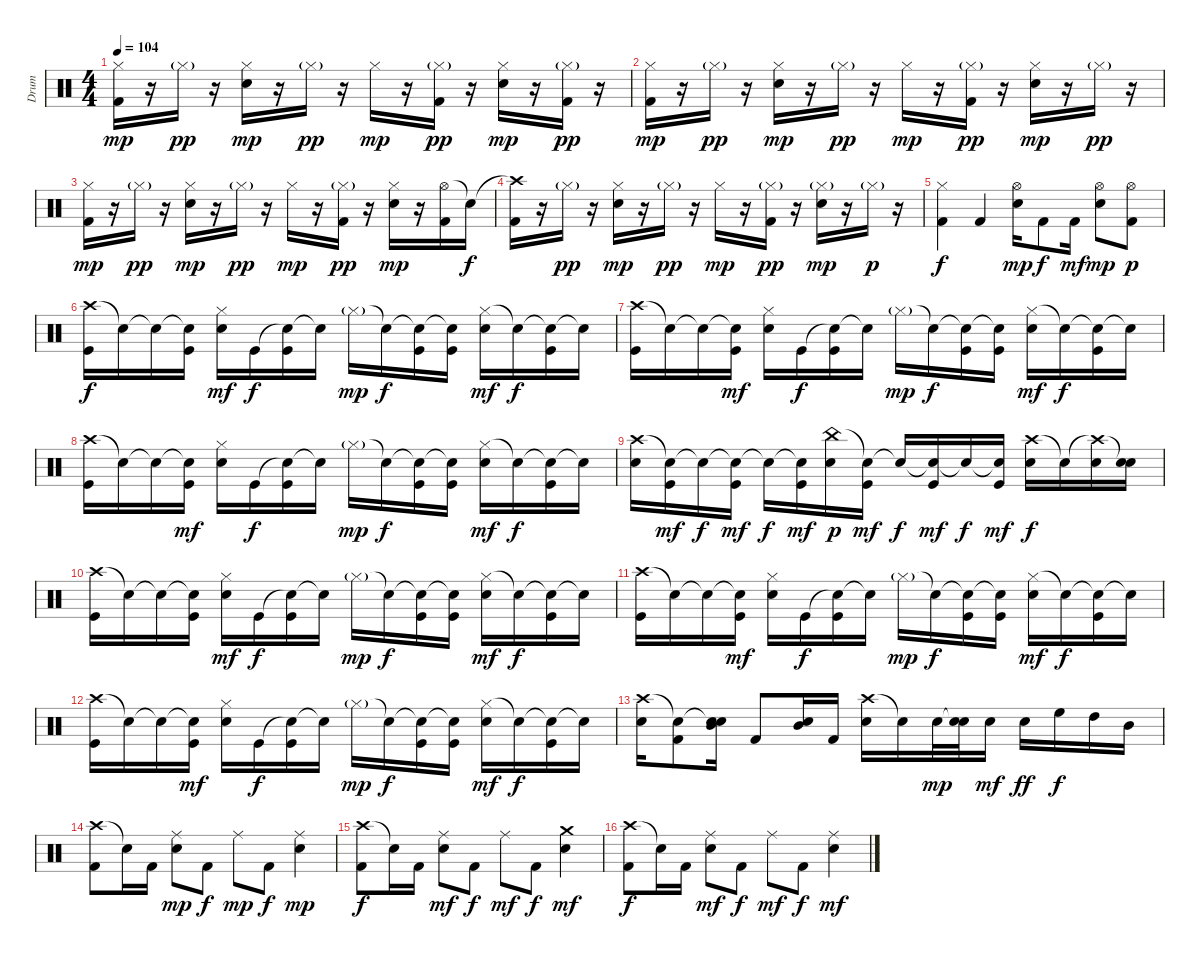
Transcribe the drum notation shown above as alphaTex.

\track ("Drum" "Drum") {instrument percussion}
\staff {score}
\articulation defaults
\ts (4 4)
\tempo 104
\clef neutral
\ks c
("Hi-Hat (closed)" "Kick (hit) 2").16{dy mp} r.16 "Hi-Hat (closed)"{g}.16{dy pp} r.16 ("Hi-Hat (closed)" "Snare (hit) 2").16{dy mp} r.16 "Hi-Hat (closed)"{g}.16{dy pp} r.16 "Hi-Hat (closed)".16{dy mp} r.16 ("Hi-Hat (closed)"{g} "Kick (hit) 2").16{dy pp} r.16 ("Hi-Hat (closed)" "Snare (hit) 2").16{dy mp} r.16 ("Hi-Hat (closed)"{g} "Kick (hit) 2").16{dy pp} r.16 |
("Hi-Hat (closed)" "Kick (hit) 2").16{dy mp} r.16 "Hi-Hat (closed)"{g}.16{dy pp} r.16 ("Hi-Hat (closed)" "Snare (hit) 2").16{dy mp} r.16 "Hi-Hat (closed)"{g}.16{dy pp} r.16 "Hi-Hat (closed)".16{dy mp} r.16 ("Hi-Hat (closed)"{g} "Kick (hit) 2").16{dy pp} r.16 ("Hi-Hat (closed)" "Snare (hit) 2").16{dy mp} r.16 "Hi-Hat (closed)"{g}.16{dy pp} r.16 |
("Hi-Hat (closed)" "Kick (hit) 2").16{dy mp} r.16 "Hi-Hat (closed)"{g}.16{dy pp} r.16 ("Hi-Hat (closed)" "Snare (hit) 2").16{dy mp} r.16 "Hi-Hat (closed)"{g}.16{dy pp} r.16 "Hi-Hat (closed)".16{dy mp} r.16 ("Hi-Hat (closed)"{g} "Kick (hit) 2").16{dy pp} r.16 ("Hi-Hat (closed)" "Snare (hit) 2").16{dy mp} r.16 ("Hi-Hat (open)" "Kick (hit) 2").16 "Snare (hit)"{t}.16{dy f} |
("Crash high (hit)"{t} "Kick (hit) 2").16 r.16 "Hi-Hat (closed)"{g}.16{dy pp} r.16 ("Hi-Hat (closed)" "Snare (hit) 2").16{dy mp} r.16 "Hi-Hat (closed)"{g}.16{dy pp} r.16 "Hi-Hat (closed)".16{dy mp} r.16 ("Hi-Hat (closed)"{g} "Kick (hit) 2").16{dy pp} r.16 ("Hi-Hat (closed)"{g} "Snare (hit) 2").16{dy mp} r.16 "Hi-Hat (closed)"{g}.16{dy p} r.16 |
("Hi-Hat (closed)" "Kick (hit) 2").4{dy f} "Kick (hit) 2".4 ("Hi-Hat (open)" "Snare (hit) 2").16{dy mp} "Kick (hit) 2".8{dy f} "Kick (hit) 2".16{dy mf} ("Hi-Hat (open)" "Snare (hit) 2").8{dy mp} ("Hi-Hat (open)" "Kick (hit) 2").8{dy p} |
("Crash high (hit)" "Kick (hit)").16{dy f} "Snare (hit)"{t}.16 "Snare (hit)"{t}.16 ("Snare (hit)"{t} "Kick (hit)").16 ("Hi-Hat (closed)" "Snare (hit) 2").16{dy mf} "Kick (hit)".16{dy f} ("Snare (hit)"{t} "Kick (hit)").16 "Snare (hit)"{t}.16 "Hi-Hat (closed)"{g}.16{dy mp} "Snare (hit)"{t}.16{dy f} ("Snare (hit)"{t} "Kick (hit)").16 ("Snare (hit)"{t} "Kick (hit)").16 ("Hi-Hat (closed)" "Snare (hit) 2").16{dy mf} "Snare (hit)"{t}.16{dy f} ("Snare (hit)"{t} "Kick (hit)").16 "Snare (hit)"{t}.16 |
("Crash high (hit)" "Kick (hit)").16 "Snare (hit)"{t}.16 "Snare (hit)"{t}.16 ("Snare (hit)"{t} "Kick (hit)").16{dy mf} ("Hi-Hat (closed)" "Snare (hit) 2").16 "Kick (hit)".16{dy f} ("Snare (hit)"{t} "Kick (hit)").16 "Snare (hit)"{t}.16 "Hi-Hat (closed)"{g}.16{dy mp} "Snare (hit)"{t}.16{dy f} ("Snare (hit)"{t} "Kick (hit)").16 ("Snare (hit)"{t} "Kick (hit)").16 ("Hi-Hat (closed)" "Snare (hit) 2").16{dy mf} "Snare (hit)"{t}.16{dy f} ("Snare (hit)"{t} "Kick (hit)").16 "Snare (hit)"{t}.16 |
("Crash high (hit)" "Kick (hit)").16 "Snare (hit)"{t}.16 "Snare (hit)"{t}.16 ("Snare (hit)"{t} "Kick (hit)").16{dy mf} ("Hi-Hat (closed)" "Snare (hit) 2").16 "Kick (hit)".16{dy f} ("Snare (hit)"{t} "Kick (hit)").16 "Snare (hit)"{t}.16 "Hi-Hat (closed)"{g}.16{dy mp} "Snare (hit)"{t}.16{dy f} ("Snare (hit)"{t} "Kick (hit)").16 ("Snare (hit)"{t} "Kick (hit)").16 ("Hi-Hat (closed)" "Snare (hit) 2").16{dy mf} "Snare (hit)"{t}.16{dy f} ("Snare (hit)"{t} "Kick (hit)").16 "Snare (hit)"{t}.16 |
("Crash high (hit)" "Snare (hit) 2").16 ("Snare (hit)"{t} "Kick (hit)").16{dy mf} "Snare (hit)"{t}.16{dy f} ("Snare (hit)"{t} "Kick (hit)").16{dy mf} "Snare (hit)"{t}.16{dy f} ("Snare (hit)"{t} "Kick (hit)").16{dy mf} ("China (hit)" "Snare (hit) 2").16{dy p} ("Snare (hit)"{t} "Kick (hit)").16{dy mf} "Snare (hit)"{t}.16{dy f} ("Snare (hit)"{t} "Kick (hit)").16{dy mf} "Snare (hit)"{t}.16{dy f} ("Snare (hit)"{t} "Kick (hit)").16{dy mf} ("Crash high (hit)" "Snare (hit) 2").16{dy f} "Snare (hit)"{t}.16 ("Crash high (hit)"{t} "Snare (hit) 2").16 ("Snare (hit)"{t} "Snare (hit) 2").16 |
("Crash high (hit)" "Kick (hit)").16 "Snare (hit)"{t}.16 "Snare (hit)"{t}.16 ("Snare (hit)"{t} "Kick (hit)").16 ("Hi-Hat (closed)" "Snare (hit) 2").16{dy mf} "Kick (hit)".16{dy f} ("Snare (hit)"{t} "Kick (hit)").16 "Snare (hit)"{t}.16 "Hi-Hat (closed)"{g}.16{dy mp} "Snare (hit)"{t}.16{dy f} ("Snare (hit)"{t} "Kick (hit)").16 ("Snare (hit)"{t} "Kick (hit)").16 ("Hi-Hat (closed)" "Snare (hit) 2").16{dy mf} "Snare (hit)"{t}.16{dy f} ("Snare (hit)"{t} "Kick (hit)").16 "Snare (hit)"{t}.16 |
("Crash high (hit)" "Kick (hit)").16 "Snare (hit)"{t}.16 "Snare (hit)"{t}.16 ("Snare (hit)"{t} "Kick (hit)").16{dy mf} ("Hi-Hat (closed)" "Snare (hit) 2").16 "Kick (hit)".16{dy f} ("Snare (hit)"{t} "Kick (hit)").16 "Snare (hit)"{t}.16 "Hi-Hat (closed)"{g}.16{dy mp} "Snare (hit)"{t}.16{dy f} ("Snare (hit)"{t} "Kick (hit)").16 ("Snare (hit)"{t} "Kick (hit)").16 ("Hi-Hat (closed)" "Snare (hit) 2").16{dy mf} "Snare (hit)"{t}.16{dy f} ("Snare (hit)"{t} "Kick (hit)").16 "Snare (hit)"{t}.16 |
("Crash high (hit)" "Kick (hit)").16 "Snare (hit)"{t}.16 "Snare (hit)"{t}.16 ("Snare (hit)"{t} "Kick (hit)").16{dy mf} ("Hi-Hat (closed)" "Snare (hit) 2").16 "Kick (hit)".16{dy f} ("Snare (hit)"{t} "Kick (hit)").16 "Snare (hit)"{t}.16 "Hi-Hat (closed)"{g}.16{dy mp} "Snare (hit)"{t}.16{dy f} ("Snare (hit)"{t} "Kick (hit)").16 ("Snare (hit)"{t} "Kick (hit)").16 ("Hi-Hat (closed)" "Snare (hit) 2").16{dy mf} "Snare (hit)"{t}.16{dy f} ("Snare (hit)"{t} "Kick (hit)").16 "Snare (hit)"{t}.16 |
("Crash high (hit)" "Snare (hit) 2").16 ("Snare (hit)"{t} "Kick (hit) 2").8 ("Snare (hit)"{t} "Mid Tom (hit)" "Snare (hit) 2").16 "Kick (hit) 2".8 ("Mid Tom (hit)" "Snare (hit) 2").16 "Kick (hit) 2".16 ("Crash high (hit)" "Snare (hit) 2").16 "Snare (hit)"{t}.16 "Snare (hit) 2".32{dy mp} ("Snare (hit)"{t} "Snare (hit) 2").32 "Snare (hit) 2".16{dy mf} "Snare (hit) 2".16{dy ff} "High Floor Tom (hit)".16{dy f} "High Tom (hit)".16 "Mid Tom (hit)".16 |
("Crash high (hit)" "Kick (hit) 2").8 "Snare (hit)"{t}.16 "Kick (hit) 2".16 ("Ride (middle)" "Snare (hit) 2").8{dy mp} "Kick (hit) 2".8{dy f} "Ride (middle)".8{dy mp} "Kick (hit) 2".8{dy f} ("Ride (middle)" "Snare (hit) 2").4{dy mp} |
("Crash high (hit)" "Kick (hit) 2").8{dy f} "Snare (hit)"{t}.16 "Kick (hit) 2".16 ("Ride (middle)" "Snare (hit) 2").8{dy mf} "Kick (hit) 2".8{dy f} "Ride (middle)".8{dy mf} "Kick (hit) 2".8{dy f} ("Crash medium (hit)" "Snare (hit) 2").4{dy mf} |
("Crash high (hit)" "Kick (hit) 2").8{dy f} "Snare (hit)"{t}.16 "Kick (hit) 2".16 ("Ride (middle)" "Snare (hit) 2").8{dy mf} "Kick (hit) 2".8{dy f} "Ride (middle)".8{dy mf} "Kick (hit) 2".8{dy f} ("Ride (middle)" "Snare (hit) 2").4{dy mf}
